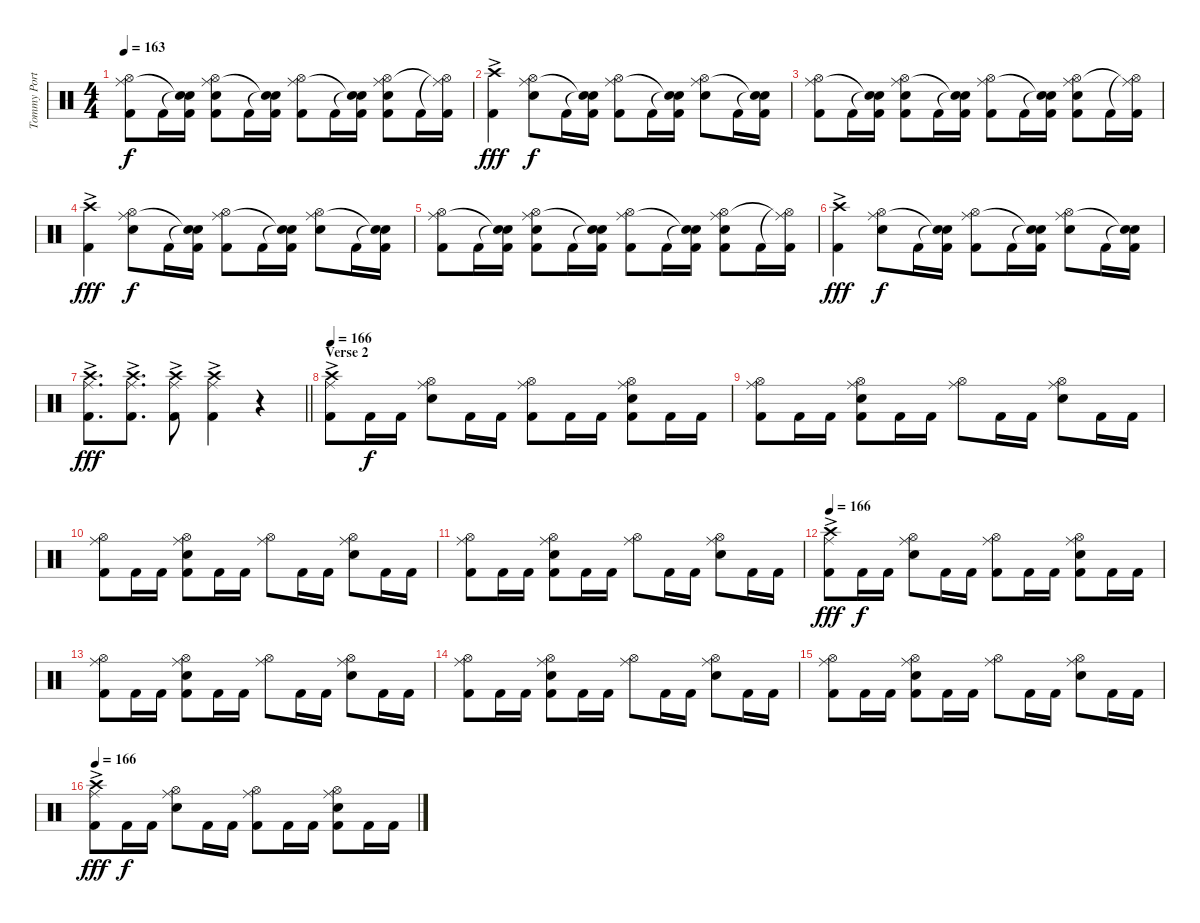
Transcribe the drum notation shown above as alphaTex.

\track ("Tommy Portimo" "Tommy Port") {instrument percussion}
\staff {score}
\articulation defaults
\ts (4 4)
\tempo 163
\clef neutral
\ks c
("Hi-Hat (open)" "Ride (middle)" "Kick (hit) 2").8{dy f} "Kick (hit) 2".16 ("Snare (hit)"{t} "Snare (hit)"{t} "Kick (hit) 2").16 ("Hi-Hat (open)" "Ride (middle)" "Electric Snare (hit)" "Kick (hit) 2").8 "Kick (hit) 2".16 ("Snare (hit)"{t} "Snare (hit)"{t} "Kick (hit) 2").16 ("Hi-Hat (open)" "Ride (middle)" "Kick (hit) 2").8 "Kick (hit) 2".16 ("Snare (hit)"{t} "Snare (hit)"{t} "Kick (hit) 2").16 ("Hi-Hat (open)" "Ride (middle)" "Electric Snare (hit)" "Kick (hit) 2").8 "Kick (hit) 2".16 ("Hi-Hat (open)"{t} "Ride (middle)"{t} "Kick (hit) 2").16 |
("Crash high (hit)"{ac} "Kick (hit) 2").4{dy fff} ("Hi-Hat (open)" "Ride (middle)" "Electric Snare (hit)").8{dy f} "Kick (hit) 2".16 ("Snare (hit)"{t} "Snare (hit)"{t} "Kick (hit) 2").16 ("Hi-Hat (open)" "Ride (middle)" "Kick (hit) 2").8 "Kick (hit) 2".16 ("Snare (hit)"{t} "Snare (hit)"{t} "Kick (hit) 2").16 ("Hi-Hat (open)" "Ride (middle)" "Electric Snare (hit)").8 "Kick (hit) 2".16 ("Snare (hit)"{t} "Snare (hit)"{t} "Kick (hit) 2").16 |
("Hi-Hat (open)" "Ride (middle)" "Kick (hit) 2").8 "Kick (hit) 2".16 ("Snare (hit)"{t} "Snare (hit)"{t} "Kick (hit) 2").16 ("Hi-Hat (open)" "Ride (middle)" "Electric Snare (hit)" "Kick (hit) 2").8 "Kick (hit) 2".16 ("Snare (hit)"{t} "Snare (hit)"{t} "Kick (hit) 2").16 ("Hi-Hat (open)" "Ride (middle)" "Kick (hit) 2").8 "Kick (hit) 2".16 ("Snare (hit)"{t} "Snare (hit)"{t} "Kick (hit) 2").16 ("Hi-Hat (open)" "Ride (middle)" "Electric Snare (hit)" "Kick (hit) 2").8 "Kick (hit) 2".16 ("Hi-Hat (open)"{t} "Ride (middle)"{t} "Kick (hit) 2").16 |
("Crash high (hit)"{ac} "Kick (hit) 2").4{dy fff} ("Hi-Hat (open)" "Ride (middle)" "Electric Snare (hit)").8{dy f} "Kick (hit) 2".16 ("Snare (hit)"{t} "Snare (hit)"{t} "Kick (hit) 2").16 ("Hi-Hat (open)" "Ride (middle)" "Kick (hit) 2").8 "Kick (hit) 2".16 ("Snare (hit)"{t} "Snare (hit)"{t} "Kick (hit) 2").16 ("Hi-Hat (open)" "Ride (middle)" "Electric Snare (hit)").8 "Kick (hit) 2".16 ("Snare (hit)"{t} "Snare (hit)"{t} "Kick (hit) 2").16 |
("Hi-Hat (open)" "Ride (middle)" "Kick (hit) 2").8 "Kick (hit) 2".16 ("Snare (hit)"{t} "Snare (hit)"{t} "Kick (hit) 2").16 ("Hi-Hat (open)" "Ride (middle)" "Electric Snare (hit)" "Kick (hit) 2").8 "Kick (hit) 2".16 ("Snare (hit)"{t} "Snare (hit)"{t} "Kick (hit) 2").16 ("Hi-Hat (open)" "Ride (middle)" "Kick (hit) 2").8 "Kick (hit) 2".16 ("Snare (hit)"{t} "Snare (hit)"{t} "Kick (hit) 2").16 ("Hi-Hat (open)" "Ride (middle)" "Electric Snare (hit)" "Kick (hit) 2").8 "Kick (hit) 2".16 ("Hi-Hat (open)"{t} "Ride (middle)"{t} "Kick (hit) 2").16 |
("Crash high (hit)"{ac} "Kick (hit) 2").4{dy fff} ("Hi-Hat (open)" "Ride (middle)" "Electric Snare (hit)").8{dy f} "Kick (hit) 2".16 ("Snare (hit)"{t} "Snare (hit)"{t} "Kick (hit) 2").16 ("Hi-Hat (open)" "Ride (middle)" "Kick (hit) 2").8 "Kick (hit) 2".16 ("Snare (hit)"{t} "Snare (hit)"{t} "Kick (hit) 2").16 ("Hi-Hat (open)" "Ride (middle)" "Electric Snare (hit)").8 "Kick (hit) 2".16 ("Snare (hit)"{t} "Snare (hit)"{t} "Kick (hit) 2").16 |
\barLineRight lightlight
("Crash high (hit)"{ac} "Ride (middle)" "Kick (hit) 2").8{d dy fff} ("Crash high (hit)"{ac} "Ride (middle)" "Kick (hit) 2").8{d} ("Crash high (hit)"{ac} "Ride (middle)" "Kick (hit) 2").8 ("Crash high (hit)"{ac} "Ride (middle)" "Kick (hit) 2").4 r.4 |
\section ("" "Verse 2")
\tempo 163
\tempo 166
("Crash high (hit)"{ac} "Ride (middle)" "Kick (hit) 2").8 "Kick (hit) 2".16{dy f} "Kick (hit) 2".16 ("Hi-Hat (open)" "Ride (middle)" "Electric Snare (hit)").8 "Kick (hit) 2".16 "Kick (hit) 2".16 ("Hi-Hat (open)" "Ride (middle)" "Kick (hit) 2").8 "Kick (hit) 2".16 "Kick (hit) 2".16 ("Hi-Hat (open)" "Ride (middle)" "Electric Snare (hit)" "Kick (hit) 2").8 "Kick (hit) 2".16 "Kick (hit) 2".16 |
("Hi-Hat (open)" "Ride (middle)" "Kick (hit) 2").8 "Kick (hit) 2".16 "Kick (hit) 2".16 ("Hi-Hat (open)" "Ride (middle)" "Electric Snare (hit)" "Kick (hit) 2").8 "Kick (hit) 2".16 "Kick (hit) 2".16 ("Hi-Hat (open)" "Ride (middle)").8 "Kick (hit) 2".16 "Kick (hit) 2".16 ("Hi-Hat (open)" "Ride (middle)" "Electric Snare (hit)").8 "Kick (hit) 2".16 "Kick (hit) 2".16 |
("Hi-Hat (open)" "Ride (middle)" "Kick (hit) 2").8 "Kick (hit) 2".16 "Kick (hit) 2".16 ("Hi-Hat (open)" "Ride (middle)" "Electric Snare (hit)" "Kick (hit) 2").8 "Kick (hit) 2".16 "Kick (hit) 2".16 ("Hi-Hat (open)" "Ride (middle)").8 "Kick (hit) 2".16 "Kick (hit) 2".16 ("Hi-Hat (open)" "Ride (middle)" "Electric Snare (hit)").8 "Kick (hit) 2".16 "Kick (hit) 2".16 |
("Hi-Hat (open)" "Ride (middle)" "Kick (hit) 2").8 "Kick (hit) 2".16 "Kick (hit) 2".16 ("Hi-Hat (open)" "Ride (middle)" "Electric Snare (hit)" "Kick (hit) 2").8 "Kick (hit) 2".16 "Kick (hit) 2".16 ("Hi-Hat (open)" "Ride (middle)").8 "Kick (hit) 2".16 "Kick (hit) 2".16 ("Hi-Hat (open)" "Ride (middle)" "Electric Snare (hit)").8 "Kick (hit) 2".16 "Kick (hit) 2".16 |
\tempo 166
("Crash high (hit)"{ac} "Ride (middle)" "Kick (hit) 2").8{dy fff} "Kick (hit) 2".16{dy f} "Kick (hit) 2".16 ("Hi-Hat (open)" "Ride (middle)" "Electric Snare (hit)").8 "Kick (hit) 2".16 "Kick (hit) 2".16 ("Hi-Hat (open)" "Ride (middle)" "Kick (hit) 2").8 "Kick (hit) 2".16 "Kick (hit) 2".16 ("Hi-Hat (open)" "Ride (middle)" "Electric Snare (hit)" "Kick (hit) 2").8 "Kick (hit) 2".16 "Kick (hit) 2".16 |
("Hi-Hat (open)" "Ride (middle)" "Kick (hit) 2").8 "Kick (hit) 2".16 "Kick (hit) 2".16 ("Hi-Hat (open)" "Ride (middle)" "Electric Snare (hit)" "Kick (hit) 2").8 "Kick (hit) 2".16 "Kick (hit) 2".16 ("Hi-Hat (open)" "Ride (middle)").8 "Kick (hit) 2".16 "Kick (hit) 2".16 ("Hi-Hat (open)" "Ride (middle)" "Electric Snare (hit)").8 "Kick (hit) 2".16 "Kick (hit) 2".16 |
("Hi-Hat (open)" "Ride (middle)" "Kick (hit) 2").8 "Kick (hit) 2".16 "Kick (hit) 2".16 ("Hi-Hat (open)" "Ride (middle)" "Electric Snare (hit)" "Kick (hit) 2").8 "Kick (hit) 2".16 "Kick (hit) 2".16 ("Hi-Hat (open)" "Ride (middle)").8 "Kick (hit) 2".16 "Kick (hit) 2".16 ("Hi-Hat (open)" "Ride (middle)" "Electric Snare (hit)").8 "Kick (hit) 2".16 "Kick (hit) 2".16 |
("Hi-Hat (open)" "Ride (middle)" "Kick (hit) 2").8 "Kick (hit) 2".16 "Kick (hit) 2".16 ("Hi-Hat (open)" "Ride (middle)" "Electric Snare (hit)" "Kick (hit) 2").8 "Kick (hit) 2".16 "Kick (hit) 2".16 ("Hi-Hat (open)" "Ride (middle)").8 "Kick (hit) 2".16 "Kick (hit) 2".16 ("Hi-Hat (open)" "Ride (middle)" "Electric Snare (hit)").8 "Kick (hit) 2".16 "Kick (hit) 2".16 |
\tempo 166
("Crash high (hit)"{ac} "Ride (middle)" "Kick (hit) 2").8{dy fff} "Kick (hit) 2".16{dy f} "Kick (hit) 2".16 ("Hi-Hat (open)" "Ride (middle)" "Electric Snare (hit)").8 "Kick (hit) 2".16 "Kick (hit) 2".16 ("Hi-Hat (open)" "Ride (middle)" "Kick (hit) 2").8 "Kick (hit) 2".16 "Kick (hit) 2".16 ("Hi-Hat (open)" "Ride (middle)" "Electric Snare (hit)" "Kick (hit) 2").8 "Kick (hit) 2".16 "Kick (hit) 2".16
